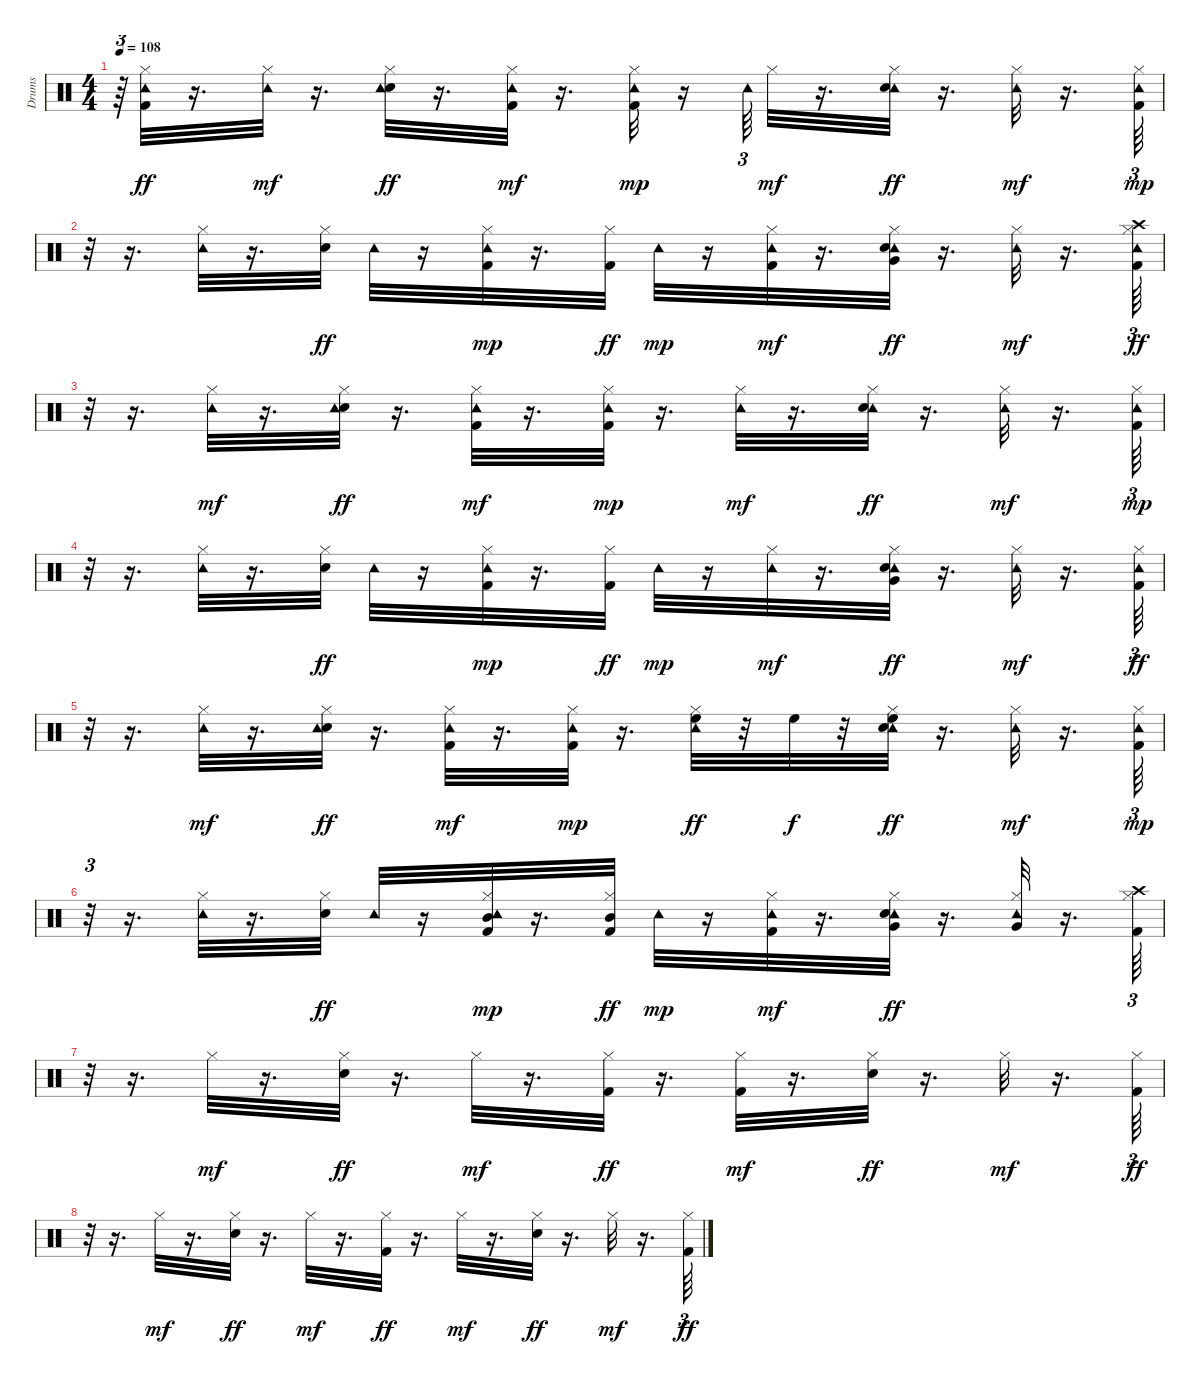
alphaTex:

\track ("Drums               " "Drums     ") {instrument percussion}
\staff {score}
\articulation defaults
\ts (4 4)
\tempo 108
\clef neutral
\ks c
r.64{tu (3 2) dy mf} ("Kick (hit) 2" "Tambourine (hit)" "Hi-Hat (closed)").32{dy ff} r.16{d} ("Tambourine (hit)" "Hi-Hat (closed)").32{dy mf} r.16{d} ("Snare (hit) 2" "Hi-Hat (closed)" "Tambourine (hit)").32{dy ff} r.16{d} ("Tambourine (hit)" "Kick (hit) 2" "Hi-Hat (closed)").32{dy mf} r.16{d} ("Hi-Hat (closed)" "Kick (hit) 2" "Tambourine (hit)").32{dy mp} r.16 "Tambourine (hit)".64{tu (3 2)} "Hi-Hat (closed)".32{dy mf} r.16{d} ("Tambourine (hit)" "Snare (hit) 2" "Hi-Hat (closed)").32{dy ff} r.16{d} ("Tambourine (hit)" "Hi-Hat (closed)").32{dy mf} r.16{d} ("Kick (hit) 2" "Hi-Hat (closed)" "Tambourine (hit)").64{tu (3 2) dy mp} |
r.32{tu (3 2)} r.16{d} ("Hi-Hat (closed)" "Tambourine (hit)").32 r.16{d} ("Snare (hit) 2" "Hi-Hat (closed)").32{dy ff} "Tambourine (hit)".32 r.16 ("Kick (hit) 2" "Hi-Hat (closed)" "Tambourine (hit)").32{dy mp} r.16{d} ("Kick (hit) 2" "Hi-Hat (closed)").32{dy ff} "Tambourine (hit)".32{dy mp} r.16 ("Tambourine (hit)" "Kick (hit) 2" "Hi-Hat (closed)").32{dy mf} r.16{d} ("Tambourine (hit)" "Snare (hit) 2" "Hi-Hat (closed)" "Very Low Tom (hit)").32{dy ff} r.16{d} ("Tambourine (hit)" "Hi-Hat (closed)").32{dy mf} r.16{d} ("Kick (hit) 2" "Crash high (hit)" "Tambourine (hit)" "Hi-Hat (closed)").64{tu (3 2) dy ff} |
r.32{tu (3 2)} r.16{d} ("Tambourine (hit)" "Hi-Hat (closed)").32{dy mf} r.16{d} ("Snare (hit) 2" "Hi-Hat (closed)" "Tambourine (hit)").32{dy ff} r.16{d} ("Tambourine (hit)" "Kick (hit) 2" "Hi-Hat (closed)").32{dy mf} r.16{d} ("Kick (hit) 2" "Hi-Hat (closed)" "Tambourine (hit)").32{dy mp} r.16{d} ("Tambourine (hit)" "Hi-Hat (closed)").32{dy mf} r.16{d} ("Tambourine (hit)" "Snare (hit) 2" "Hi-Hat (closed)").32{dy ff} r.16{d} ("Tambourine (hit)" "Hi-Hat (closed)").32{dy mf} r.16{d} ("Kick (hit) 2" "Hi-Hat (closed)" "Tambourine (hit)").64{tu (3 2) dy mp} |
r.32{tu (3 2)} r.16{d} ("Hi-Hat (closed)" "Tambourine (hit)").32 r.16{d} ("Hi-Hat (closed)" "Snare (hit) 2").32{dy ff} "Tambourine (hit)".32 r.16 ("Kick (hit) 2" "Hi-Hat (closed)" "Tambourine (hit)").32{dy mp} r.16{d} ("Kick (hit) 2" "Hi-Hat (closed)").32{dy ff} "Tambourine (hit)".32{dy mp} r.16 ("Tambourine (hit)" "Hi-Hat (closed)").32{dy mf} r.16{d} ("Tambourine (hit)" "Snare (hit) 2" "Very Low Tom (hit)" "Hi-Hat (closed)").32{dy ff} r.16{d} ("Tambourine (hit)" "Hi-Hat (closed)").32{dy mf} r.16{d} ("Kick (hit) 2" "Tambourine (hit)" "Hi-Hat (closed)").64{tu (3 2) dy ff} |
r.32{tu (3 2)} r.16{d} ("Tambourine (hit)" "Hi-Hat (closed)").32{dy mf} r.16{d} ("Snare (hit) 2" "Hi-Hat (closed)" "Tambourine (hit)").32{dy ff} r.16{d} ("Tambourine (hit)" "Kick (hit) 2" "Hi-Hat (closed)").32{dy mf} r.16{d} ("Kick (hit) 2" "Hi-Hat (closed)" "Tambourine (hit)").32{dy mp} r.16{d} ("Tambourine (hit)" "Hi-Hat (closed)" "High Floor Tom (hit)").32{dy ff} r.32 "High Floor Tom (hit)".32{dy f} r.32 ("Tambourine (hit)" "Snare (hit) 2" "High Floor Tom (hit)" "Hi-Hat (closed)").32{dy ff} r.16{d} ("Tambourine (hit)" "Hi-Hat (closed)").32{dy mf} r.16{d} ("Kick (hit) 2" "Hi-Hat (closed)" "Tambourine (hit)").64{tu (3 2) dy mp} |
r.32{tu (3 2)} r.16{d} ("Hi-Hat (closed)" "Tambourine (hit)").32 r.16{d} ("Snare (hit) 2" "Hi-Hat (closed)").32{dy ff} "Tambourine (hit)".32 r.16 ("Kick (hit) 2" "Mid Tom (hit)" "Hi-Hat (closed)" "Tambourine (hit)").32{dy mp} r.16{d} ("Kick (hit) 2" "Mid Tom (hit)" "Hi-Hat (closed)").32{dy ff} "Tambourine (hit)".32{dy mp} r.16 ("Tambourine (hit)" "Kick (hit) 2" "Hi-Hat (closed)").32{dy mf} r.16{d} ("Tambourine (hit)" "Snare (hit) 2" "Very Low Tom (hit)" "Hi-Hat (closed)").32{dy ff} r.16{d} ("Tambourine (hit)" "Hi-Hat (closed)" "Very Low Tom (hit)").32 r.16{d} ("Hi-Hat (closed)" "Kick (hit) 2" "Crash high (hit)").64{tu (3 2)} |
r.32{tu (3 2)} r.16{d} "Hi-Hat (closed)".32{dy mf} r.16{d} ("Snare (hit) 2" "Hi-Hat (closed)").32{dy ff} r.16{d} "Hi-Hat (closed)".32{dy mf} r.16{d} ("Kick (hit) 2" "Hi-Hat (closed)").32{dy ff} r.16{d} ("Kick (hit) 2" "Hi-Hat (closed)").32{dy mf} r.16{d} ("Snare (hit) 2" "Hi-Hat (closed)").32{dy ff} r.16{d} "Hi-Hat (closed)".32{dy mf} r.16{d} ("Kick (hit) 2" "Hi-Hat (closed)").64{tu (3 2) dy ff} |
r.32{tu (3 2)} r.16{d} "Hi-Hat (closed)".32{dy mf} r.16{d} ("Snare (hit) 2" "Hi-Hat (closed)").32{dy ff} r.16{d} "Hi-Hat (closed)".32{dy mf} r.16{d} ("Kick (hit) 2" "Hi-Hat (closed)").32{dy ff} r.16{d} "Hi-Hat (closed)".32{dy mf} r.16{d} ("Snare (hit) 2" "Hi-Hat (closed)").32{dy ff} r.16{d} "Hi-Hat (closed)".32{dy mf} r.16{d} ("Kick (hit) 2" "Hi-Hat (closed)").64{tu (3 2) dy ff}
